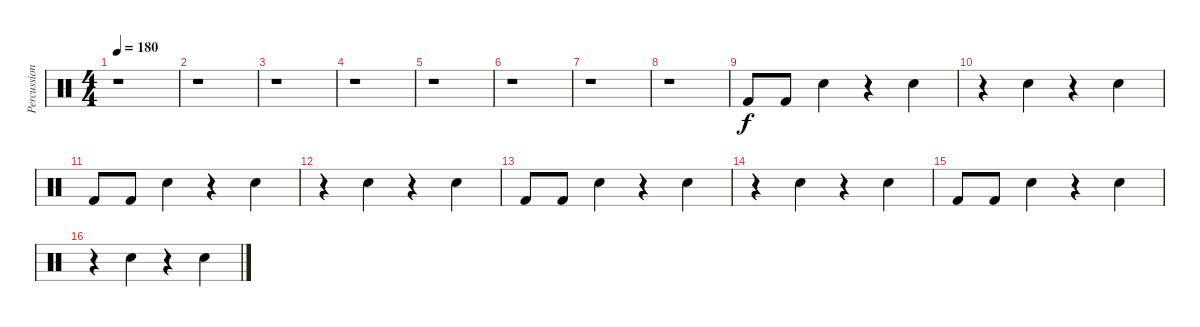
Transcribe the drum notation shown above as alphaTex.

\track ("Percussion" "Percussion") {instrument percussion}
\staff {score}
\articulation defaults
\ts (4 4)
\tempo 180
\clef neutral
\ks c
r.1{dy f} |
r.1 |
r.1 |
r.1 |
r.1 |
r.1 |
r.1 |
r.1 |
"Kick (hit) 2".8 "Kick (hit) 2".8 "Snare (hit) 2".4 r.4 "Snare (hit) 2".4 |
r.4 "Snare (hit) 2".4 r.4 "Snare (hit) 2".4 |
"Kick (hit) 2".8 "Kick (hit) 2".8 "Snare (hit) 2".4 r.4 "Snare (hit) 2".4 |
r.4 "Snare (hit) 2".4 r.4 "Snare (hit) 2".4 |
"Kick (hit) 2".8 "Kick (hit) 2".8 "Snare (hit) 2".4 r.4 "Snare (hit) 2".4 |
r.4 "Snare (hit) 2".4 r.4 "Snare (hit) 2".4 |
"Kick (hit) 2".8 "Kick (hit) 2".8 "Snare (hit) 2".4 r.4 "Snare (hit) 2".4 |
r.4 "Snare (hit) 2".4 r.4 "Snare (hit) 2".4
